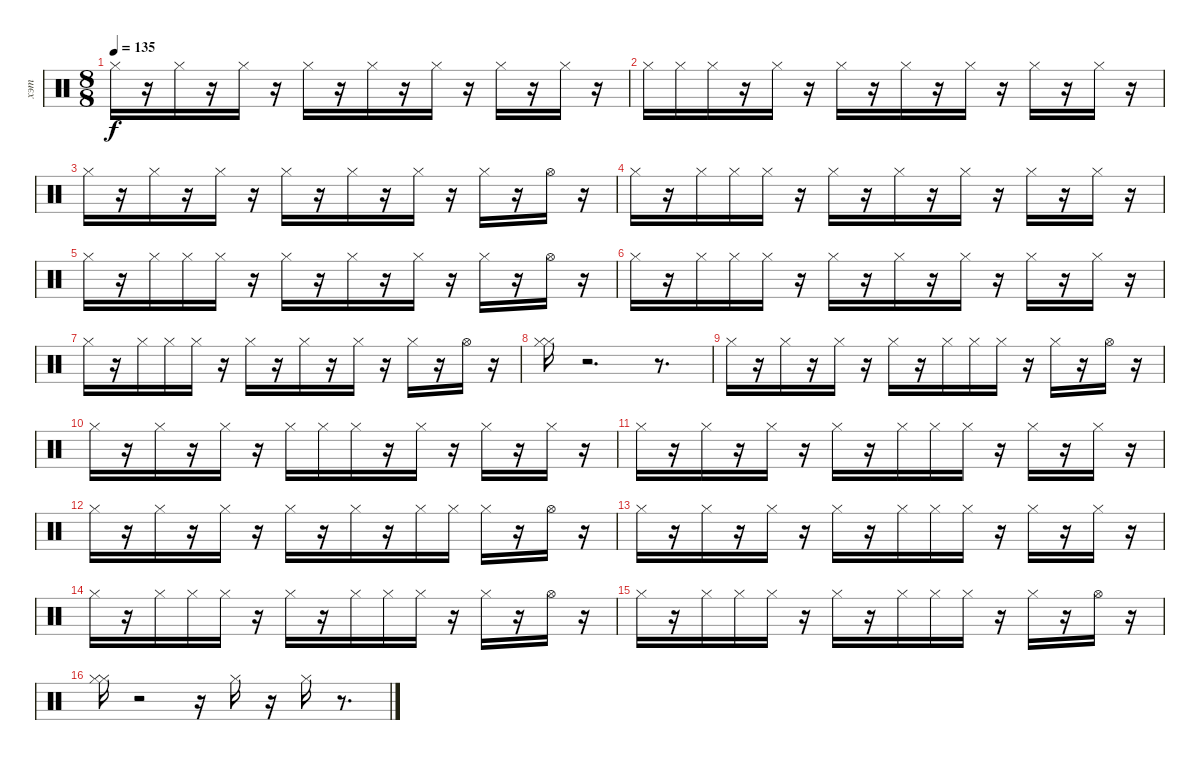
\track ("хэт" "хэт") {instrument percussion}
\staff {score}
\articulation defaults
\ts (8 8)
\tempo 135
\clef neutral
\ks c "Hi-Hat (closed)".16{dy f}
r.16 "Hi-Hat (closed)".16 r.16 "Hi-Hat (closed)".16 r.16 "Hi-Hat (closed)".16 r.16 "Hi-Hat (closed)".16 r.16 "Hi-Hat (closed)".16 r.16 "Hi-Hat (closed)".16 r.16 "Hi-Hat (closed)".16 r.16 |
"Hi-Hat (closed)".16 "Hi-Hat (closed)".16 "Hi-Hat (closed)".16 r.16 "Hi-Hat (closed)".16 r.16 "Hi-Hat (closed)".16 r.16 "Hi-Hat (closed)".16 r.16 "Hi-Hat (closed)".16 r.16 "Hi-Hat (closed)".16 r.16 "Hi-Hat (closed)".16 r.16 |
"Hi-Hat (closed)".16 r.16 "Hi-Hat (closed)".16 r.16 "Hi-Hat (closed)".16 r.16 "Hi-Hat (closed)".16 r.16 "Hi-Hat (closed)".16 r.16 "Hi-Hat (closed)".16 r.16 "Hi-Hat (closed)".16 r.16 "Hi-Hat (open)".16 r.16 |
"Hi-Hat (closed)".16 r.16 "Hi-Hat (closed)".16 "Hi-Hat (closed)".16 "Hi-Hat (closed)".16 r.16 "Hi-Hat (closed)".16 r.16 "Hi-Hat (closed)".16 r.16 "Hi-Hat (closed)".16 r.16 "Hi-Hat (closed)".16 r.16 "Hi-Hat (closed)".16 r.16 |
"Hi-Hat (closed)".16 r.16 "Hi-Hat (closed)".16 "Hi-Hat (closed)".16 "Hi-Hat (closed)".16 r.16 "Hi-Hat (closed)".16 r.16 "Hi-Hat (closed)".16 r.16 "Hi-Hat (closed)".16 r.16 "Hi-Hat (closed)".16 r.16 "Hi-Hat (open)".16 r.16 |
"Hi-Hat (closed)".16 r.16 "Hi-Hat (closed)".16 "Hi-Hat (closed)".16 "Hi-Hat (closed)".16 r.16 "Hi-Hat (closed)".16 r.16 "Hi-Hat (closed)".16 r.16 "Hi-Hat (closed)".16 r.16 "Hi-Hat (closed)".16 r.16 "Hi-Hat (closed)".16 r.16 |
"Hi-Hat (closed)".16 r.16 "Hi-Hat (closed)".16 "Hi-Hat (closed)".16 "Hi-Hat (closed)".16 r.16 "Hi-Hat (closed)".16 r.16 "Hi-Hat (closed)".16 r.16 "Hi-Hat (closed)".16 r.16 "Hi-Hat (closed)".16 r.16 "Hi-Hat (open)".16 r.16 |
("Hi-Hat (closed)" "Hi-Hat (closed)").16 r.2{d} r.8{d} |
"Hi-Hat (closed)".16 r.16 "Hi-Hat (closed)".16 r.16 "Hi-Hat (closed)".16 r.16 "Hi-Hat (closed)".16 r.16 "Hi-Hat (closed)".16 "Hi-Hat (closed)".16 "Hi-Hat (closed)".16 r.16 "Hi-Hat (closed)".16 r.16 "Hi-Hat (open)".16 r.16 |
"Hi-Hat (closed)".16 r.16 "Hi-Hat (closed)".16 r.16 "Hi-Hat (closed)".16 r.16 "Hi-Hat (closed)".16 "Hi-Hat (closed)".16 "Hi-Hat (closed)".16 r.16 "Hi-Hat (closed)".16 r.16 "Hi-Hat (closed)".16 r.16 "Hi-Hat (closed)".16 r.16 |
"Hi-Hat (closed)".16 r.16 "Hi-Hat (closed)".16 r.16 "Hi-Hat (closed)".16 r.16 "Hi-Hat (closed)".16 r.16 "Hi-Hat (closed)".16 "Hi-Hat (closed)".16 "Hi-Hat (closed)".16 r.16 "Hi-Hat (closed)".16 r.16 "Hi-Hat (closed)".16 r.16 |
"Hi-Hat (closed)".16 r.16 "Hi-Hat (closed)".16 r.16 "Hi-Hat (closed)".16 r.16 "Hi-Hat (closed)".16 r.16 "Hi-Hat (closed)".16 r.16 "Hi-Hat (closed)".16 "Hi-Hat (closed)".16 "Hi-Hat (closed)".16 r.16 "Hi-Hat (open)".16 r.16 |
"Hi-Hat (closed)".16 r.16 "Hi-Hat (closed)".16 r.16 "Hi-Hat (closed)".16 r.16 "Hi-Hat (closed)".16 r.16 "Hi-Hat (closed)".16 "Hi-Hat (closed)".16 "Hi-Hat (closed)".16 r.16 "Hi-Hat (closed)".16 r.16 "Hi-Hat (closed)".16 r.16 |
"Hi-Hat (closed)".16 r.16 "Hi-Hat (closed)".16 "Hi-Hat (closed)".16 "Hi-Hat (closed)".16 r.16 "Hi-Hat (closed)".16 r.16 "Hi-Hat (closed)".16 "Hi-Hat (closed)".16 "Hi-Hat (closed)".16 r.16 "Hi-Hat (closed)".16 r.16 "Hi-Hat (open)".16 r.16 |
"Hi-Hat (closed)".16 r.16 "Hi-Hat (closed)".16 "Hi-Hat (closed)".16 "Hi-Hat (closed)".16 r.16 "Hi-Hat (closed)".16 r.16 "Hi-Hat (closed)".16 "Hi-Hat (closed)".16 "Hi-Hat (closed)".16 r.16 "Hi-Hat (closed)".16 r.16 "Hi-Hat (open)".16 r.16 |
("Hi-Hat (closed)" "Hi-Hat (closed)").16 r.2 r.16 "Hi-Hat (closed)".16 r.16 "Hi-Hat (closed)".16 r.8{d}
